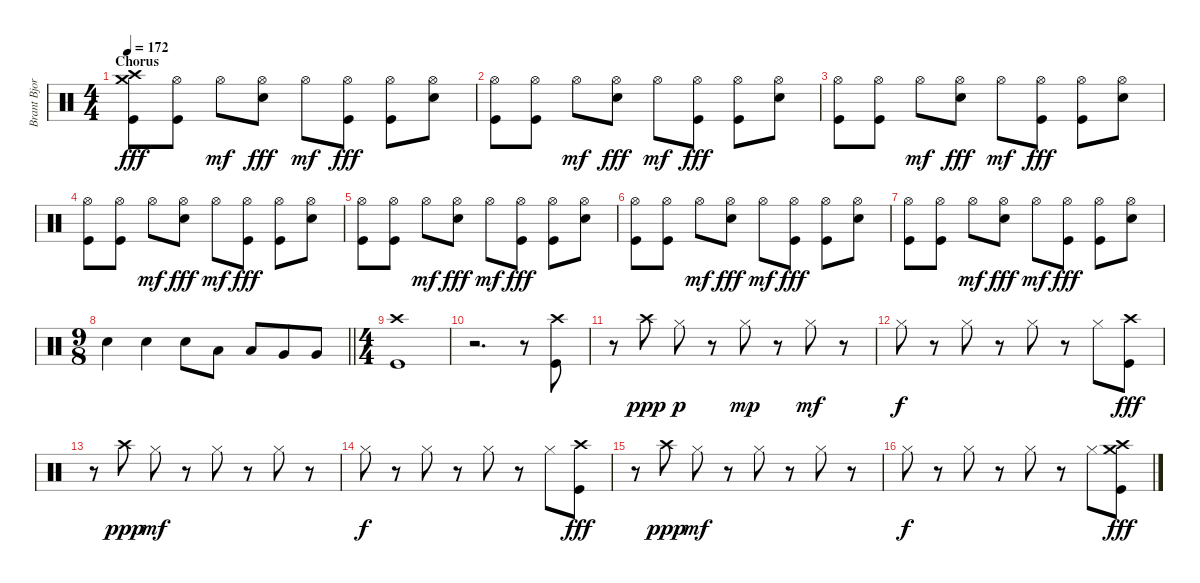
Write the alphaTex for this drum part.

\track ("Brant Bjork" "Brant Bjor") {instrument percussion}
\staff {score}
\articulation defaults
\ts (4 4)
\section ("" "Chorus")
\tempo 172
\clef neutral
\ks c
("Crash high (hit)" "Crash medium (hit)" "Kick (hit)").8{dy fff} ("Hi-Hat (open)" "Kick (hit)").8 "Hi-Hat (open)".8{dy mf} ("Hi-Hat (open)" "Snare (hit) 2").8{dy fff} "Hi-Hat (open)".8{dy mf} ("Hi-Hat (open)" "Kick (hit)").8{dy fff} ("Hi-Hat (open)" "Kick (hit)").8 ("Hi-Hat (open)" "Snare (hit) 2").8 |
("Hi-Hat (open)" "Kick (hit)").8 ("Hi-Hat (open)" "Kick (hit)").8 "Hi-Hat (open)".8{dy mf} ("Hi-Hat (open)" "Snare (hit) 2").8{dy fff} "Hi-Hat (open)".8{dy mf} ("Hi-Hat (open)" "Kick (hit)").8{dy fff} ("Hi-Hat (open)" "Kick (hit)").8 ("Hi-Hat (open)" "Snare (hit) 2").8 |
("Hi-Hat (open)" "Kick (hit)").8 ("Hi-Hat (open)" "Kick (hit)").8 "Hi-Hat (open)".8{dy mf} ("Hi-Hat (open)" "Snare (hit) 2").8{dy fff} "Hi-Hat (open)".8{dy mf} ("Hi-Hat (open)" "Kick (hit)").8{dy fff} ("Hi-Hat (open)" "Kick (hit)").8 ("Hi-Hat (open)" "Snare (hit) 2").8 |
("Hi-Hat (open)" "Kick (hit)").8 ("Hi-Hat (open)" "Kick (hit)").8 "Hi-Hat (open)".8{dy mf} ("Hi-Hat (open)" "Snare (hit) 2").8{dy fff} "Hi-Hat (open)".8{dy mf} ("Hi-Hat (open)" "Kick (hit)").8{dy fff} ("Hi-Hat (open)" "Kick (hit)").8 ("Hi-Hat (open)" "Snare (hit) 2").8 |
("Hi-Hat (open)" "Kick (hit)").8 ("Hi-Hat (open)" "Kick (hit)").8 "Hi-Hat (open)".8{dy mf} ("Hi-Hat (open)" "Snare (hit) 2").8{dy fff} "Hi-Hat (open)".8{dy mf} ("Hi-Hat (open)" "Kick (hit)").8{dy fff} ("Hi-Hat (open)" "Kick (hit)").8 ("Hi-Hat (open)" "Snare (hit) 2").8 |
("Hi-Hat (open)" "Kick (hit)").8 ("Hi-Hat (open)" "Kick (hit)").8 "Hi-Hat (open)".8{dy mf} ("Hi-Hat (open)" "Snare (hit) 2").8{dy fff} "Hi-Hat (open)".8{dy mf} ("Hi-Hat (open)" "Kick (hit)").8{dy fff} ("Hi-Hat (open)" "Kick (hit)").8 ("Hi-Hat (open)" "Snare (hit) 2").8 |
("Hi-Hat (open)" "Kick (hit)").8 ("Hi-Hat (open)" "Kick (hit)").8 "Hi-Hat (open)".8{dy mf} ("Hi-Hat (open)" "Snare (hit) 2").8{dy fff} "Hi-Hat (open)".8{dy mf} ("Hi-Hat (open)" "Kick (hit)").8{dy fff} ("Hi-Hat (open)" "Kick (hit)").8 ("Hi-Hat (open)" "Snare (hit) 2").8 |
\ts (9 8)
\barLineRight lightlight "Snare (hit) 2".4 "Snare (hit) 2".4 "Snare (hit) 2".8 "Low Tom (hit)".8 "Low Tom (hit)".8 "Very Low Tom (hit)".8 "Very Low Tom (hit)".8
|
\ts (4 4)
("Crash high (hit)" "Kick (hit)").1 |
r.2{d} r.8 ("Crash high (hit)" "Kick (hit)").8 |
r.8 "Crash high (hit)".8{dy ppp} "Hi-Hat (closed)".8{dy p} r.8 "Hi-Hat (closed)".8{dy mp} r.8 "Hi-Hat (closed)".8{dy mf} r.8 |
"Hi-Hat (closed)".8{dy f} r.8 "Hi-Hat (closed)".8 r.8 "Hi-Hat (closed)".8 r.8 "Hi-Hat (closed)".8 ("Crash high (hit)" "Kick (hit)").8{dy fff} |
r.8 "Crash high (hit)".8{dy ppp} "Hi-Hat (closed)".8{dy mf} r.8 "Hi-Hat (closed)".8 r.8 "Hi-Hat (closed)".8 r.8 |
"Hi-Hat (closed)".8{dy f} r.8 "Hi-Hat (closed)".8 r.8 "Hi-Hat (closed)".8 r.8 "Hi-Hat (closed)".8 ("Crash high (hit)" "Kick (hit)").8{dy fff} |
r.8 "Crash high (hit)".8{dy ppp} "Hi-Hat (closed)".8{dy mf} r.8 "Hi-Hat (closed)".8 r.8 "Hi-Hat (closed)".8 r.8 |
"Hi-Hat (closed)".8{dy f} r.8 "Hi-Hat (closed)".8 r.8 "Hi-Hat (closed)".8 r.8 "Hi-Hat (closed)".8 ("Crash high (hit)" "Crash medium (hit)" "Kick (hit)").8{dy fff}
